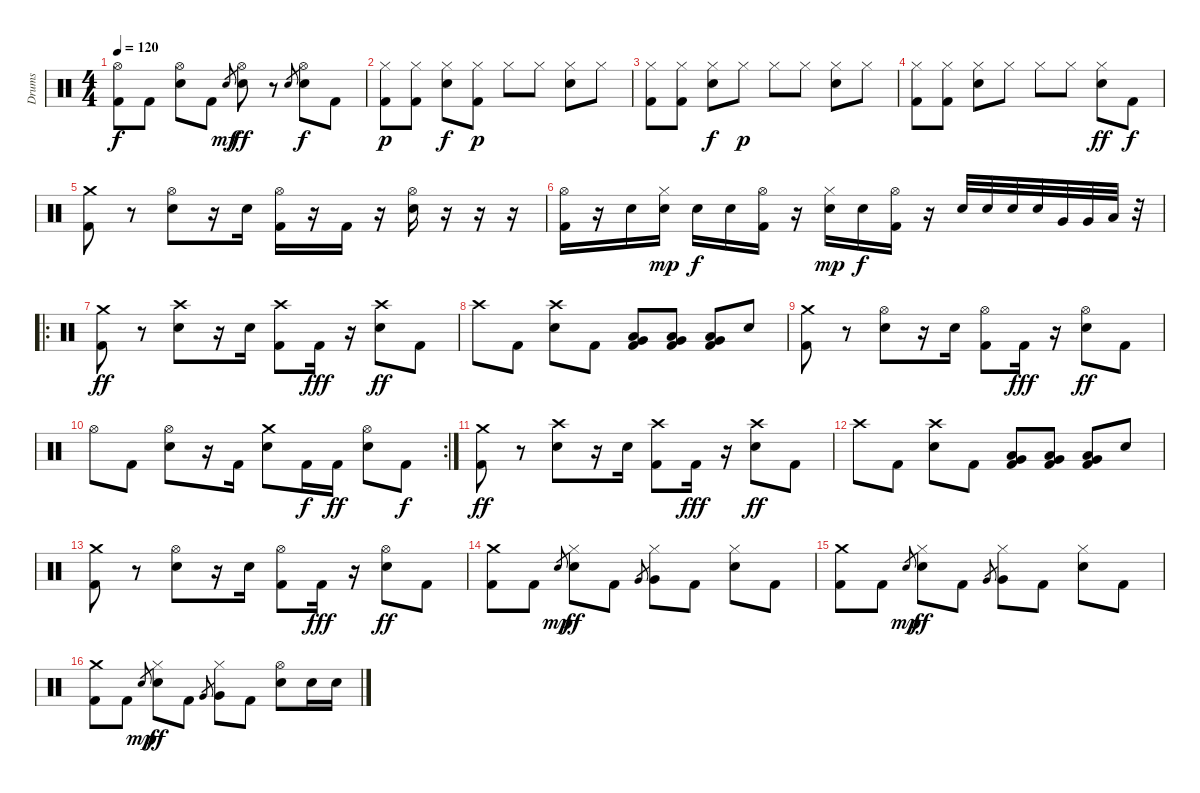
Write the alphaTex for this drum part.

\track ("Drums" "Drums") {instrument percussion}
\staff {score}
\articulation defaults
\ts (4 4)
\tempo 120
\clef neutral
\ks c
("Hi-Hat (open)" "Kick (hit) 2").8{dy f} "Kick (hit) 2".8 ("Hi-Hat (open)" "Snare (hit) 2").8 "Kick (hit) 2".8 "Snare (hit) 2".8{gr dy mf} ("Hi-Hat (open)" "Snare (hit) 2").8{dy ff} r.8 "Snare (hit) 2".8{gr} ("Hi-Hat (open)" "Snare (hit) 2").8{dy f} "Kick (hit) 2".8 |
("Hi-Hat (closed)" "Kick (hit) 2").8{dy p} ("Hi-Hat (closed)" "Kick (hit) 2").8 ("Hi-Hat (closed)" "Snare (hit) 2").8{dy f} ("Hi-Hat (closed)" "Kick (hit) 2").8{dy p} "Hi-Hat (closed)".8 "Hi-Hat (closed)".8 ("Hi-Hat (closed)" "Snare (hit) 2").8 "Hi-Hat (closed)".8 |
("Hi-Hat (closed)" "Kick (hit) 2").8 ("Hi-Hat (closed)" "Kick (hit) 2").8 ("Hi-Hat (closed)" "Snare (hit) 2").8{dy f} "Hi-Hat (closed)".8{dy p} "Hi-Hat (closed)".8 "Hi-Hat (closed)".8 ("Hi-Hat (closed)" "Snare (hit) 2").8 "Hi-Hat (closed)".8 |
("Hi-Hat (closed)" "Kick (hit) 2").8 ("Hi-Hat (closed)" "Kick (hit) 2").8 ("Hi-Hat (closed)" "Snare (hit) 2").8 "Hi-Hat (closed)".8 "Hi-Hat (closed)".8 "Hi-Hat (closed)".8 ("Hi-Hat (closed)" "Snare (hit) 2").8{dy ff} "Kick (hit) 2".8{dy f} |
("Crash medium (hit)" "Kick (hit) 2").8 r.8 ("Hi-Hat (open)" "Snare (hit) 2").8 r.16 "Snare (hit) 2".16 ("Hi-Hat (open)" "Kick (hit) 2").16 r.16 "Kick (hit) 2".16 r.16 ("Hi-Hat (open)" "Snare (hit) 2").16 r.16 r.16 r.16 |
("Hi-Hat (open)" "Kick (hit) 2").16 r.16 "Snare (hit) 2".16 ("Hi-Hat (closed)" "Snare (hit) 2").16{dy mp} "Snare (hit) 2".16{dy f} "Snare (hit) 2".16 ("Hi-Hat (open)" "Kick (hit) 2").16 r.16 ("Hi-Hat (closed)" "Snare (hit) 2").16{dy mp} "Snare (hit) 2".16{dy f} ("Hi-Hat (open)" "Kick (hit) 2").16 r.16 "Snare (hit) 2".32 "Snare (hit) 2".32 "Snare (hit) 2".32 "Snare (hit) 2".32 "Very Low Tom (hit)".32 "Very Low Tom (hit)".32 "Low Tom (hit)".32 r.32 |
\ro
("Crash medium (hit)" "Kick (hit) 2").8{dy ff} r.8 ("Crash high (hit)" "Snare (hit) 2").8 r.16 "Snare (hit) 2".16 ("Crash high (hit)" "Kick (hit) 2").8 "Kick (hit) 2".16{dy fff} r.16 ("Crash high (hit)" "Snare (hit) 2").8{dy ff} "Kick (hit) 2".8 |
"Crash high (hit)".8 "Kick (hit) 2".8 ("Crash high (hit)" "Snare (hit) 2").8 "Kick (hit) 2".8 ("Low Floor Tom (hit)" "Very Low Tom (hit)" "Kick (hit) 2").8 ("Low Floor Tom (hit)" "Very Low Tom (hit)" "Kick (hit) 2").8 ("Low Floor Tom (hit)" "Very Low Tom (hit)" "Kick (hit) 2").8 "Snare (hit) 2".8 |
("Crash medium (hit)" "Kick (hit) 2").8 r.8 ("Hi-Hat (open)" "Snare (hit) 2").8 r.16 "Snare (hit) 2".16 ("Hi-Hat (open)" "Kick (hit) 2").8 "Kick (hit) 2".16{dy fff} r.16 ("Hi-Hat (open)" "Snare (hit) 2").8{dy ff} "Kick (hit) 2".8 |
\rc 2 "Hi-Hat (open)".8 "Kick (hit) 2".8
("Hi-Hat (open)" "Snare (hit) 2").8 r.16 "Kick (hit) 2".16 ("Crash medium (hit)" "Snare (hit) 2").8 "Kick (hit) 2".16{dy f} "Kick (hit) 2".16{dy ff} ("Hi-Hat (open)" "Snare (hit) 2").8 "Kick (hit) 2".8{dy f} |
("Crash medium (hit)" "Kick (hit) 2").8{dy ff} r.8 ("Crash high (hit)" "Snare (hit) 2").8 r.16 "Snare (hit) 2".16 ("Crash high (hit)" "Kick (hit) 2").8 "Kick (hit) 2".16{dy fff} r.16 ("Crash high (hit)" "Snare (hit) 2").8{dy ff} "Kick (hit) 2".8 |
"Crash high (hit)".8 "Kick (hit) 2".8 ("Crash high (hit)" "Snare (hit) 2").8 "Kick (hit) 2".8 ("Low Floor Tom (hit)" "Very Low Tom (hit)" "Kick (hit) 2").8 ("Low Floor Tom (hit)" "Very Low Tom (hit)" "Kick (hit) 2").8 ("Low Floor Tom (hit)" "Very Low Tom (hit)" "Kick (hit) 2").8 "Snare (hit) 2".8 |
("Crash medium (hit)" "Kick (hit) 2").8 r.8 ("Hi-Hat (open)" "Snare (hit) 2").8 r.16 "Snare (hit) 2".16 ("Hi-Hat (open)" "Kick (hit) 2").8 "Kick (hit) 2".16{dy fff} r.16 ("Hi-Hat (open)" "Snare (hit) 2").8{dy ff} "Kick (hit) 2".8 |
("Crash medium (hit)" "Kick (hit) 2").8 "Kick (hit) 2".8 "Snare (hit) 2".8{gr dy mp} ("Hi-Hat (closed)" "Snare (hit) 2").8{dy ff} "Kick (hit) 2".8 "Very Low Tom (hit)".8{gr} ("Hi-Hat (closed)" "Very Low Tom (hit)").8 "Kick (hit) 2".8 ("Hi-Hat (closed)" "Snare (hit) 2").8 "Kick (hit) 2".8 |
("Crash medium (hit)" "Kick (hit) 2").8 "Kick (hit) 2".8 "Snare (hit) 2".8{gr dy mp} ("Hi-Hat (closed)" "Snare (hit) 2").8{dy ff} "Kick (hit) 2".8 "Very Low Tom (hit)".8{gr} ("Hi-Hat (closed)" "Very Low Tom (hit)").8 "Kick (hit) 2".8 ("Hi-Hat (closed)" "Snare (hit) 2").8 "Kick (hit) 2".8 |
("Crash medium (hit)" "Kick (hit) 2").8 "Kick (hit) 2".8 "Snare (hit) 2".8{gr dy mp} ("Hi-Hat (closed)" "Snare (hit) 2").8{dy ff} "Kick (hit) 2".8 "Very Low Tom (hit)".8{gr} ("Hi-Hat (closed)" "Very Low Tom (hit)").8 "Kick (hit) 2".8 ("Hi-Hat (open)" "Snare (hit) 2").8 "Snare (hit) 2".16 "Snare (hit) 2".16
